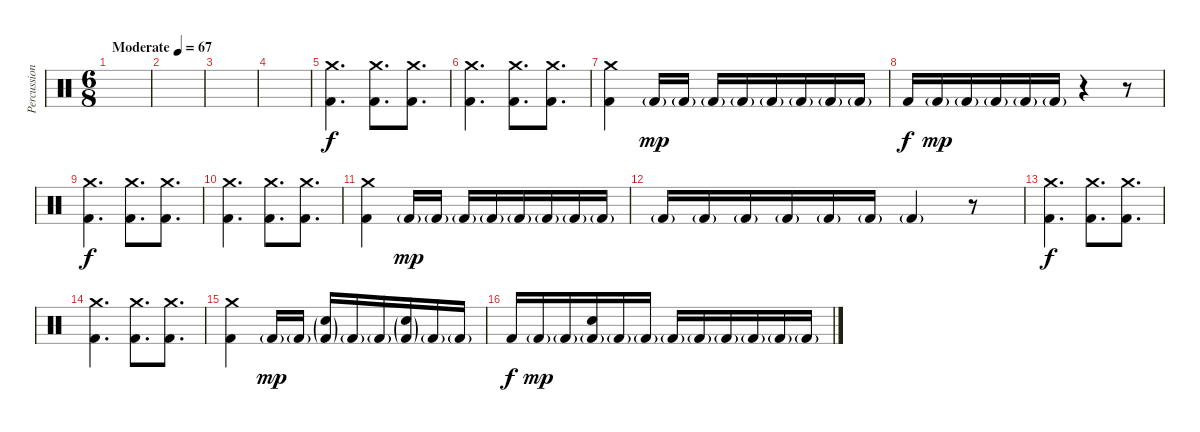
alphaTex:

\track ("Percussion" "Percussion") {instrument percussion}
\staff {score}
\articulation defaults
\ts (6 8)
\tempo (67 "Moderate")
\clef neutral
\ks c
|
|
|
|
("Crash medium (hit)" "Kick (hit) 2").4{d} ("Crash medium (hit)" "Kick (hit) 2").8{d} ("Crash medium (hit)" "Kick (hit) 2").8{d} |
("Crash medium (hit)" "Kick (hit) 2").4{d} ("Crash medium (hit)" "Kick (hit) 2").8{d} ("Crash medium (hit)" "Kick (hit) 2").8{d} |
("Crash medium (hit)" "Kick (hit) 2").4 "Kick (hit) 2"{g}.16{dy mp} "Kick (hit) 2"{g}.16 "Kick (hit) 2"{g}.16 "Kick (hit) 2"{g}.16 "Kick (hit) 2"{g}.16 "Kick (hit) 2"{g}.16 "Kick (hit) 2"{g}.16 "Kick (hit) 2"{g}.16 |
"Kick (hit) 2".16{dy f} "Kick (hit) 2"{g}.16{dy mp} "Kick (hit) 2"{g}.16 "Kick (hit) 2"{g}.16 "Kick (hit) 2"{g}.16 "Kick (hit) 2"{g}.16 r.4 r.8 |
("Crash medium (hit)" "Kick (hit) 2").4{d dy f} ("Crash medium (hit)" "Kick (hit) 2").8{d} ("Crash medium (hit)" "Kick (hit) 2").8{d} |
("Crash medium (hit)" "Kick (hit) 2").4{d} ("Crash medium (hit)" "Kick (hit) 2").8{d} ("Crash medium (hit)" "Kick (hit) 2").8{d} |
("Crash medium (hit)" "Kick (hit) 2").4 "Kick (hit) 2"{g}.16{dy mp} "Kick (hit) 2"{g}.16 "Kick (hit) 2"{g}.16 "Kick (hit) 2"{g}.16 "Kick (hit) 2"{g}.16 "Kick (hit) 2"{g}.16 "Kick (hit) 2"{g}.16 "Kick (hit) 2"{g}.16 |
"Kick (hit) 2"{g}.16 "Kick (hit) 2"{g}.16 "Kick (hit) 2"{g}.16 "Kick (hit) 2"{g}.16 "Kick (hit) 2"{g}.16 "Kick (hit) 2"{g}.16 "Kick (hit) 2"{g}.4 r.8 |
("Crash medium (hit)" "Kick (hit) 2").4{d dy f} ("Crash medium (hit)" "Kick (hit) 2").8{d} ("Crash medium (hit)" "Kick (hit) 2").8{d} |
("Crash medium (hit)" "Kick (hit) 2").4{d} ("Crash medium (hit)" "Kick (hit) 2").8{d} ("Crash medium (hit)" "Kick (hit) 2").8{d} |
("Crash medium (hit)" "Kick (hit) 2").4 "Kick (hit) 2"{g}.16{dy mp} "Kick (hit) 2"{g}.16 ("Electric Snare (hit)"{g} "Kick (hit) 2"{g}).16 "Kick (hit) 2"{g}.16 "Kick (hit) 2"{g}.16 ("Electric Snare (hit)"{g} "Kick (hit) 2"{g}).16 "Kick (hit) 2"{g}.16 "Kick (hit) 2"{g}.16 |
"Kick (hit) 2".16{dy f} "Kick (hit) 2"{g}.16{dy mp} "Kick (hit) 2"{g}.16 ("Electric Snare (hit)" "Kick (hit) 2"{g}).16 "Kick (hit) 2"{g}.16 "Kick (hit) 2"{g}.16 "Kick (hit) 2"{g}.16 "Kick (hit) 2"{g}.16 "Kick (hit) 2"{g}.16 "Kick (hit) 2"{g}.16 "Kick (hit) 2"{g}.16 "Kick (hit) 2"{g}.16
